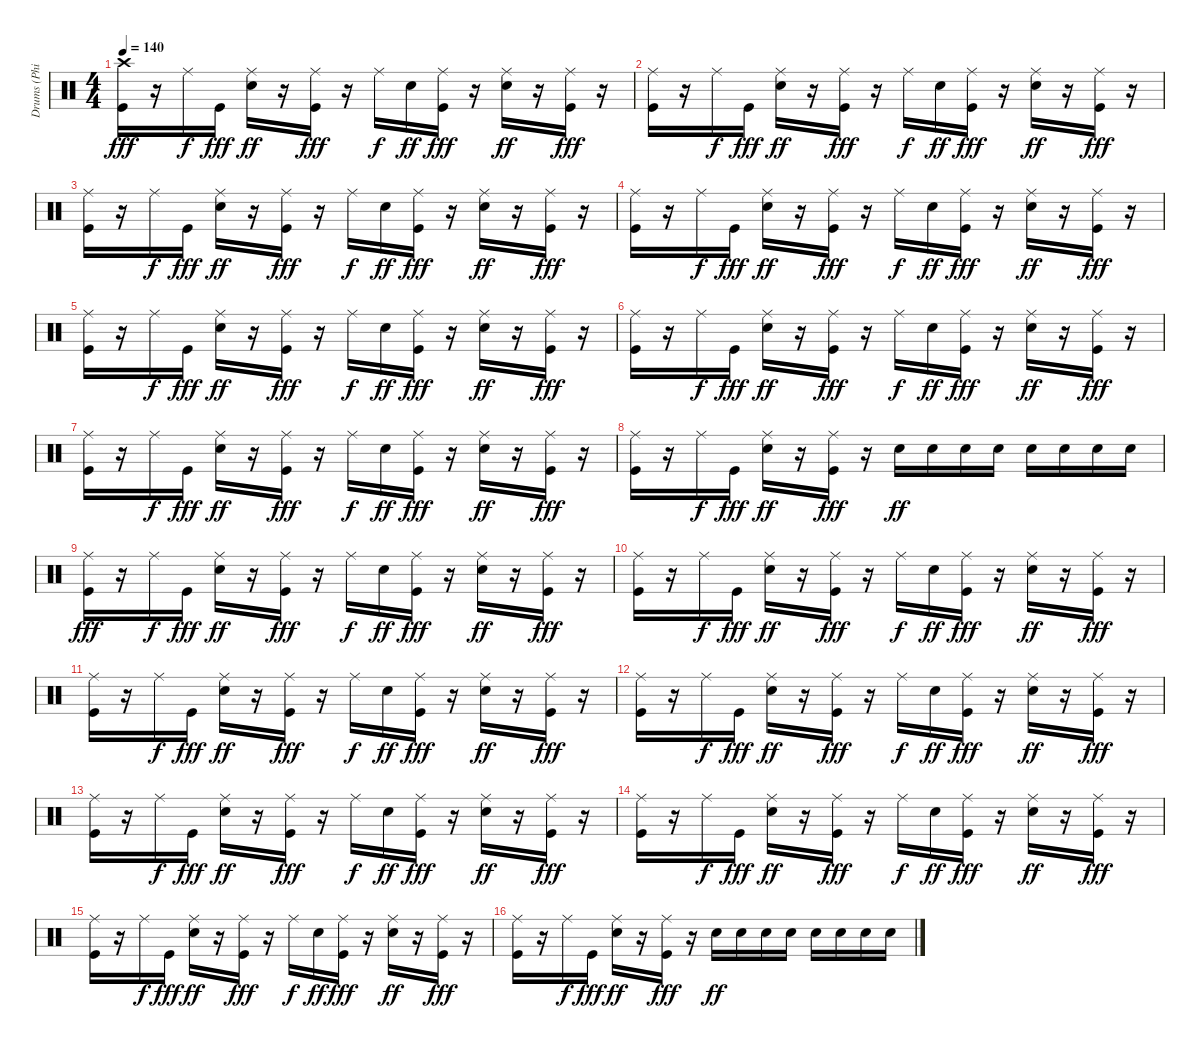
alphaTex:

\track ("Drums (Phillip Selway)" "Drums (Phi") {instrument percussion}
\staff {score}
\articulation defaults
\ts (4 4)
\tempo 140
\clef neutral
\ks c
("Crash high (hit)" "Kick (hit)").16{dy fff} r.16 "Ride (middle)".16{dy f} "Kick (hit)".16{dy fff} ("Ride (middle)" "Electric Snare (hit)").16{dy ff} r.16 ("Ride (middle)" "Kick (hit)").16{dy fff} r.16 "Ride (middle)".16{dy f} "Electric Snare (hit)".16{dy ff} ("Ride (middle)" "Kick (hit)").16{dy fff} r.16 ("Ride (middle)" "Electric Snare (hit)").16{dy ff} r.16 ("Ride (middle)" "Kick (hit)").16{dy fff} r.16 |
("Ride (middle)" "Kick (hit)").16 r.16 "Ride (middle)".16{dy f} "Kick (hit)".16{dy fff} ("Ride (middle)" "Electric Snare (hit)").16{dy ff} r.16 ("Ride (middle)" "Kick (hit)").16{dy fff} r.16 "Ride (middle)".16{dy f} "Electric Snare (hit)".16{dy ff} ("Ride (middle)" "Kick (hit)").16{dy fff} r.16 ("Ride (middle)" "Electric Snare (hit)").16{dy ff} r.16 ("Ride (middle)" "Kick (hit)").16{dy fff} r.16 |
("Ride (middle)" "Kick (hit)").16 r.16 "Ride (middle)".16{dy f} "Kick (hit)".16{dy fff} ("Ride (middle)" "Electric Snare (hit)").16{dy ff} r.16 ("Ride (middle)" "Kick (hit)").16{dy fff} r.16 "Ride (middle)".16{dy f} "Electric Snare (hit)".16{dy ff} ("Ride (middle)" "Kick (hit)").16{dy fff} r.16 ("Ride (middle)" "Electric Snare (hit)").16{dy ff} r.16 ("Ride (middle)" "Kick (hit)").16{dy fff} r.16 |
("Ride (middle)" "Kick (hit)").16 r.16 "Ride (middle)".16{dy f} "Kick (hit)".16{dy fff} ("Ride (middle)" "Electric Snare (hit)").16{dy ff} r.16 ("Ride (middle)" "Kick (hit)").16{dy fff} r.16 "Ride (middle)".16{dy f} "Electric Snare (hit)".16{dy ff} ("Ride (middle)" "Kick (hit)").16{dy fff} r.16 ("Ride (middle)" "Electric Snare (hit)").16{dy ff} r.16 ("Ride (middle)" "Kick (hit)").16{dy fff} r.16 |
("Ride (middle)" "Kick (hit)").16 r.16 "Ride (middle)".16{dy f} "Kick (hit)".16{dy fff} ("Ride (middle)" "Electric Snare (hit)").16{dy ff} r.16 ("Ride (middle)" "Kick (hit)").16{dy fff} r.16 "Ride (middle)".16{dy f} "Electric Snare (hit)".16{dy ff} ("Ride (middle)" "Kick (hit)").16{dy fff} r.16 ("Ride (middle)" "Electric Snare (hit)").16{dy ff} r.16 ("Ride (middle)" "Kick (hit)").16{dy fff} r.16 |
("Ride (middle)" "Kick (hit)").16 r.16 "Ride (middle)".16{dy f} "Kick (hit)".16{dy fff} ("Ride (middle)" "Electric Snare (hit)").16{dy ff} r.16 ("Ride (middle)" "Kick (hit)").16{dy fff} r.16 "Ride (middle)".16{dy f} "Electric Snare (hit)".16{dy ff} ("Ride (middle)" "Kick (hit)").16{dy fff} r.16 ("Ride (middle)" "Electric Snare (hit)").16{dy ff} r.16 ("Ride (middle)" "Kick (hit)").16{dy fff} r.16 |
("Ride (middle)" "Kick (hit)").16 r.16 "Ride (middle)".16{dy f} "Kick (hit)".16{dy fff} ("Ride (middle)" "Electric Snare (hit)").16{dy ff} r.16 ("Ride (middle)" "Kick (hit)").16{dy fff} r.16 "Ride (middle)".16{dy f} "Electric Snare (hit)".16{dy ff} ("Ride (middle)" "Kick (hit)").16{dy fff} r.16 ("Ride (middle)" "Electric Snare (hit)").16{dy ff} r.16 ("Ride (middle)" "Kick (hit)").16{dy fff} r.16 |
("Ride (middle)" "Kick (hit)").16 r.16 "Ride (middle)".16{dy f} "Kick (hit)".16{dy fff} ("Ride (middle)" "Electric Snare (hit)").16{dy ff} r.16 ("Ride (middle)" "Kick (hit)").16{dy fff} r.16 "Electric Snare (hit)".16{dy ff} "Electric Snare (hit)".16 "Electric Snare (hit)".16 "Electric Snare (hit)".16 "Electric Snare (hit)".16 "Electric Snare (hit)".16 "Electric Snare (hit)".16 "Electric Snare (hit)".16 |
("Ride (middle)" "Kick (hit)").16{dy fff} r.16 "Ride (middle)".16{dy f} "Kick (hit)".16{dy fff} ("Ride (middle)" "Electric Snare (hit)").16{dy ff} r.16 ("Ride (middle)" "Kick (hit)").16{dy fff} r.16 "Ride (middle)".16{dy f} "Electric Snare (hit)".16{dy ff} ("Ride (middle)" "Kick (hit)").16{dy fff} r.16 ("Ride (middle)" "Electric Snare (hit)").16{dy ff} r.16 ("Ride (middle)" "Kick (hit)").16{dy fff} r.16 |
("Ride (middle)" "Kick (hit)").16 r.16 "Ride (middle)".16{dy f} "Kick (hit)".16{dy fff} ("Ride (middle)" "Electric Snare (hit)").16{dy ff} r.16 ("Ride (middle)" "Kick (hit)").16{dy fff} r.16 "Ride (middle)".16{dy f} "Electric Snare (hit)".16{dy ff} ("Ride (middle)" "Kick (hit)").16{dy fff} r.16 ("Ride (middle)" "Electric Snare (hit)").16{dy ff} r.16 ("Ride (middle)" "Kick (hit)").16{dy fff} r.16 |
("Ride (middle)" "Kick (hit)").16 r.16 "Ride (middle)".16{dy f} "Kick (hit)".16{dy fff} ("Ride (middle)" "Electric Snare (hit)").16{dy ff} r.16 ("Ride (middle)" "Kick (hit)").16{dy fff} r.16 "Ride (middle)".16{dy f} "Electric Snare (hit)".16{dy ff} ("Ride (middle)" "Kick (hit)").16{dy fff} r.16 ("Ride (middle)" "Electric Snare (hit)").16{dy ff} r.16 ("Ride (middle)" "Kick (hit)").16{dy fff} r.16 |
("Ride (middle)" "Kick (hit)").16 r.16 "Ride (middle)".16{dy f} "Kick (hit)".16{dy fff} ("Ride (middle)" "Electric Snare (hit)").16{dy ff} r.16 ("Ride (middle)" "Kick (hit)").16{dy fff} r.16 "Ride (middle)".16{dy f} "Electric Snare (hit)".16{dy ff} ("Ride (middle)" "Kick (hit)").16{dy fff} r.16 ("Ride (middle)" "Electric Snare (hit)").16{dy ff} r.16 ("Ride (middle)" "Kick (hit)").16{dy fff} r.16 |
("Ride (middle)" "Kick (hit)").16 r.16 "Ride (middle)".16{dy f} "Kick (hit)".16{dy fff} ("Ride (middle)" "Electric Snare (hit)").16{dy ff} r.16 ("Ride (middle)" "Kick (hit)").16{dy fff} r.16 "Ride (middle)".16{dy f} "Electric Snare (hit)".16{dy ff} ("Ride (middle)" "Kick (hit)").16{dy fff} r.16 ("Ride (middle)" "Electric Snare (hit)").16{dy ff} r.16 ("Ride (middle)" "Kick (hit)").16{dy fff} r.16 |
("Ride (middle)" "Kick (hit)").16 r.16 "Ride (middle)".16{dy f} "Kick (hit)".16{dy fff} ("Ride (middle)" "Electric Snare (hit)").16{dy ff} r.16 ("Ride (middle)" "Kick (hit)").16{dy fff} r.16 "Ride (middle)".16{dy f} "Electric Snare (hit)".16{dy ff} ("Ride (middle)" "Kick (hit)").16{dy fff} r.16 ("Ride (middle)" "Electric Snare (hit)").16{dy ff} r.16 ("Ride (middle)" "Kick (hit)").16{dy fff} r.16 |
("Ride (middle)" "Kick (hit)").16 r.16 "Ride (middle)".16{dy f} "Kick (hit)".16{dy fff} ("Ride (middle)" "Electric Snare (hit)").16{dy ff} r.16 ("Ride (middle)" "Kick (hit)").16{dy fff} r.16 "Ride (middle)".16{dy f} "Electric Snare (hit)".16{dy ff} ("Ride (middle)" "Kick (hit)").16{dy fff} r.16 ("Ride (middle)" "Electric Snare (hit)").16{dy ff} r.16 ("Ride (middle)" "Kick (hit)").16{dy fff} r.16 |
("Ride (middle)" "Kick (hit)").16 r.16 "Ride (middle)".16{dy f} "Kick (hit)".16{dy fff} ("Ride (middle)" "Electric Snare (hit)").16{dy ff} r.16 ("Ride (middle)" "Kick (hit)").16{dy fff} r.16 "Electric Snare (hit)".16{dy ff} "Electric Snare (hit)".16 "Electric Snare (hit)".16 "Electric Snare (hit)".16 "Electric Snare (hit)".16 "Electric Snare (hit)".16 "Electric Snare (hit)".16 "Electric Snare (hit)".16
